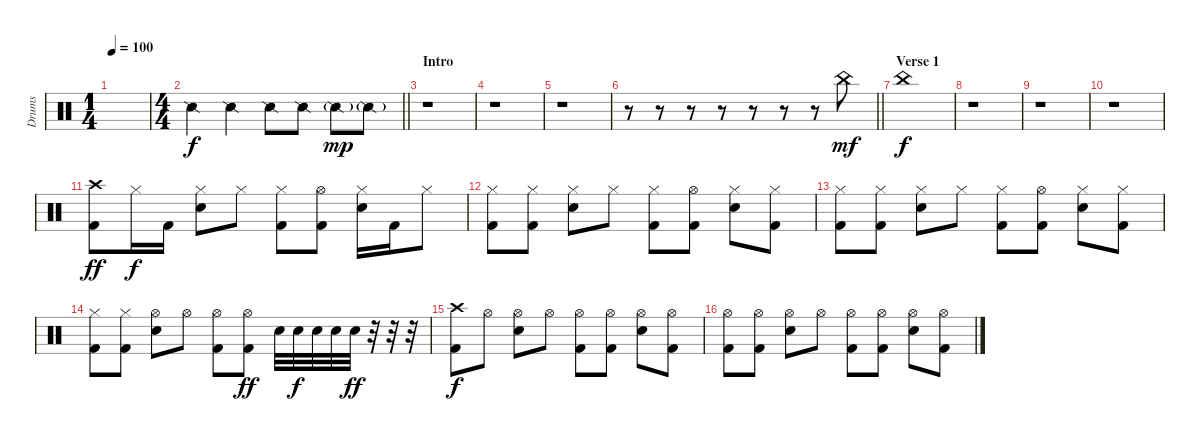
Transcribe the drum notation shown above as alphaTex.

\track ("Drums" "Drums") {instrument percussion}
\staff {score}
\articulation defaults
\ts (1 4)
\tempo 100
\clef neutral
\ks c
|
\ts (4 4)
\barLineRight lightlight "Snare (side stick) 2".4 "Snare (side stick) 2".4 "Snare (side stick) 2".8 "Snare (side stick) 2".8 "Snare (side stick) 2"{g}.8{dy mp} "Snare (side stick) 2"{g}.8
|
\section ("" "Intro")
r.1 |
r.1 |
r.1 |
\barLineRight lightlight
r.8 r.8 r.8 r.8 r.8 r.8 r.8 "China (hit)".8{dy mf} |
\section ("" "Verse 1")
"China (hit)".1{dy f} |
r.1 |
r.1 |
r.1 |
("Crash high (hit)" "Kick (hit) 2").8{dy ff} "Hi-Hat (closed)".16{dy f} "Kick (hit) 2".16 ("Hi-Hat (closed)" "Snare (hit) 2").8 "Hi-Hat (closed)".8 ("Hi-Hat (closed)" "Kick (hit) 2").8 ("Hi-Hat (open)" "Kick (hit) 2").8 ("Hi-Hat (closed)" "Snare (hit) 2").16 "Kick (hit) 2".16 "Hi-Hat (closed)".8 |
("Hi-Hat (closed)" "Kick (hit) 2").8 ("Hi-Hat (closed)" "Kick (hit) 2").8 ("Hi-Hat (closed)" "Snare (hit) 2").8 "Hi-Hat (closed)".8 ("Hi-Hat (closed)" "Kick (hit) 2").8 ("Hi-Hat (open)" "Kick (hit) 2").8 ("Hi-Hat (closed)" "Snare (hit) 2").8 ("Hi-Hat (closed)" "Kick (hit) 2").8 |
("Hi-Hat (closed)" "Kick (hit) 2").8 ("Hi-Hat (closed)" "Kick (hit) 2").8 ("Hi-Hat (closed)" "Snare (hit) 2").8 "Hi-Hat (closed)".8 ("Hi-Hat (closed)" "Kick (hit) 2").8 ("Hi-Hat (open)" "Kick (hit) 2").8 ("Hi-Hat (closed)" "Snare (hit) 2").8 ("Hi-Hat (closed)" "Kick (hit) 2").8 |
("Hi-Hat (closed)" "Kick (hit) 2").8 ("Hi-Hat (closed)" "Kick (hit) 2").8 ("Hi-Hat (open)" "Snare (hit) 2").8 "Hi-Hat (open)".8 ("Hi-Hat (open)" "Kick (hit) 2").8 ("Hi-Hat (open)" "Kick (hit) 2").8{dy ff} "Snare (hit) 2".32 "Snare (hit) 2".32{dy f} "Snare (hit) 2".32 "Snare (hit) 2".32 "Snare (hit) 2".32{dy ff} r.32 r.32 r.32 |
("Crash high (hit)" "Kick (hit) 2").8{dy f} "Hi-Hat (open)".8 ("Hi-Hat (open)" "Snare (hit) 2").8 "Hi-Hat (open)".8 ("Hi-Hat (open)" "Kick (hit) 2").8 ("Hi-Hat (open)" "Kick (hit) 2").8 ("Hi-Hat (open)" "Snare (hit) 2").8 ("Hi-Hat (open)" "Kick (hit) 2").8 |
("Hi-Hat (open)" "Kick (hit) 2").8 ("Hi-Hat (open)" "Kick (hit) 2").8 ("Hi-Hat (open)" "Snare (hit) 2").8 "Hi-Hat (open)".8 ("Hi-Hat (open)" "Kick (hit) 2").8 ("Hi-Hat (open)" "Kick (hit) 2").8 ("Hi-Hat (open)" "Snare (hit) 2").8 ("Hi-Hat (open)" "Kick (hit) 2").8
